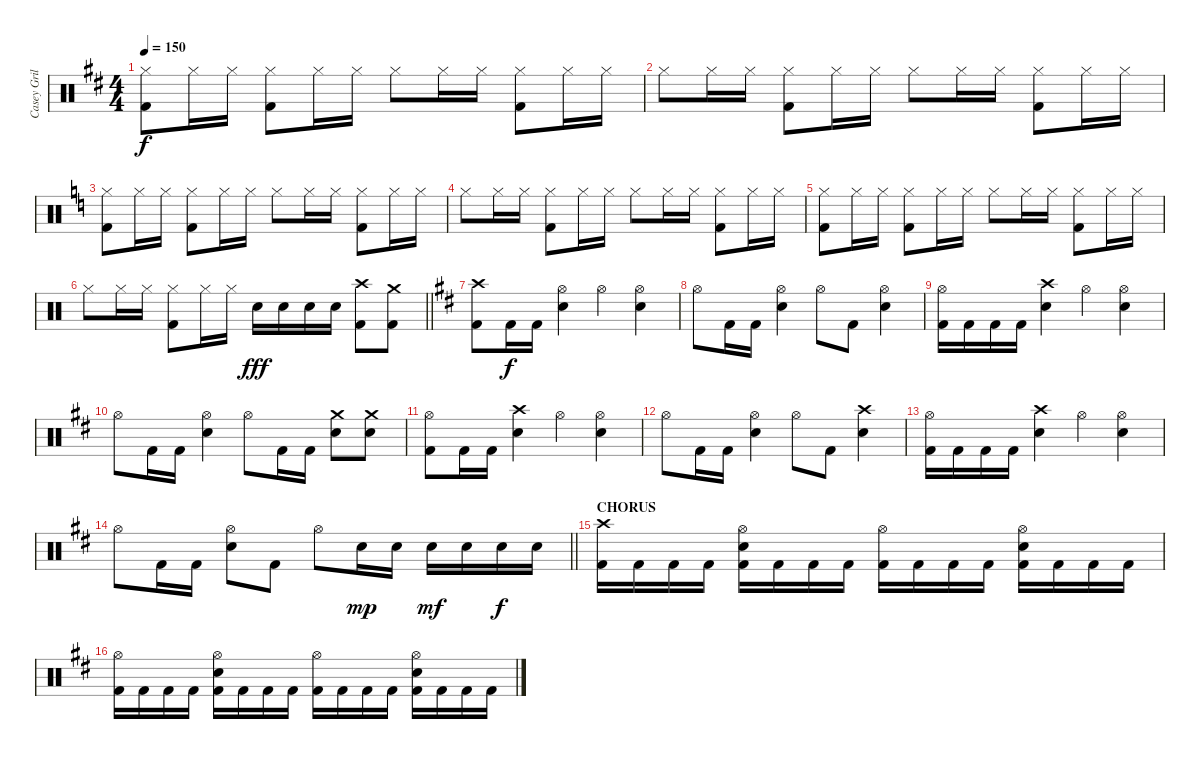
\track ("Casey Grillo" "Casey Gril") {instrument percussion}
\staff {score}
\articulation defaults
\ts (4 4)
\tempo 150
\clef neutral
\ks bminor
("Hi-Hat (closed)" "Kick (hit) 2").8{dy f} "Hi-Hat (closed)".16 "Hi-Hat (closed)".16 ("Hi-Hat (closed)" "Kick (hit) 2").8 "Hi-Hat (closed)".16 "Hi-Hat (closed)".16 "Hi-Hat (closed)".8 "Hi-Hat (closed)".16 "Hi-Hat (closed)".16 ("Hi-Hat (closed)" "Kick (hit) 2").8 "Hi-Hat (closed)".16 "Hi-Hat (closed)".16 |
"Hi-Hat (closed)".8 "Hi-Hat (closed)".16 "Hi-Hat (closed)".16 ("Hi-Hat (closed)" "Kick (hit) 2").8 "Hi-Hat (closed)".16 "Hi-Hat (closed)".16 "Hi-Hat (closed)".8 "Hi-Hat (closed)".16 "Hi-Hat (closed)".16 ("Hi-Hat (closed)" "Kick (hit) 2").8 "Hi-Hat (closed)".16 "Hi-Hat (closed)".16 |
\ks c
("Hi-Hat (closed)" "Kick (hit) 2").8 "Hi-Hat (closed)".16 "Hi-Hat (closed)".16 ("Hi-Hat (closed)" "Kick (hit) 2").8 "Hi-Hat (closed)".16 "Hi-Hat (closed)".16 "Hi-Hat (closed)".8 "Hi-Hat (closed)".16 "Hi-Hat (closed)".16 ("Hi-Hat (closed)" "Kick (hit) 2").8 "Hi-Hat (closed)".16 "Hi-Hat (closed)".16 |
"Hi-Hat (closed)".8 "Hi-Hat (closed)".16 "Hi-Hat (closed)".16 ("Hi-Hat (closed)" "Kick (hit) 2").8 "Hi-Hat (closed)".16 "Hi-Hat (closed)".16 "Hi-Hat (closed)".8 "Hi-Hat (closed)".16 "Hi-Hat (closed)".16 ("Hi-Hat (closed)" "Kick (hit) 2").8 "Hi-Hat (closed)".16 "Hi-Hat (closed)".16 |
("Hi-Hat (closed)" "Kick (hit) 2").8 "Hi-Hat (closed)".16 "Hi-Hat (closed)".16 ("Hi-Hat (closed)" "Kick (hit) 2").8 "Hi-Hat (closed)".16 "Hi-Hat (closed)".16 "Hi-Hat (closed)".8 "Hi-Hat (closed)".16 "Hi-Hat (closed)".16 ("Hi-Hat (closed)" "Kick (hit) 2").8 "Hi-Hat (closed)".16 "Hi-Hat (closed)".16 |
\barLineRight lightlight "Hi-Hat (closed)".8 "Hi-Hat (closed)".16 "Hi-Hat (closed)".16
("Hi-Hat (closed)" "Kick (hit) 2").8 "Hi-Hat (closed)".16 "Hi-Hat (closed)".16 "Electric Snare (hit)".16{dy fff} "Electric Snare (hit)".16 "Electric Snare (hit)".16 "Electric Snare (hit)".16 ("Crash high (hit)" "Kick (hit) 2").8 ("Crash medium (hit)" "Kick (hit) 2").8 |
\ks bminor
("Crash high (hit)" "Kick (hit) 2").8 "Kick (hit) 2".16{dy f} "Kick (hit) 2".16 ("Hi-Hat (open)" "Electric Snare (hit)").4 "Hi-Hat (open)".4 ("Hi-Hat (open)" "Electric Snare (hit)").4 |
"Hi-Hat (open)".8 "Kick (hit) 2".16 "Kick (hit) 2".16 ("Hi-Hat (open)" "Electric Snare (hit)").4 "Hi-Hat (open)".8 "Kick (hit) 2".8 ("Hi-Hat (open)" "Electric Snare (hit)").4 |
("Hi-Hat (open)" "Kick (hit) 2").16 "Kick (hit) 2".16 "Kick (hit) 2".16 "Kick (hit) 2".16 ("Crash high (hit)" "Electric Snare (hit)").4 "Hi-Hat (open)".4 ("Hi-Hat (open)" "Electric Snare (hit)").4 |
"Hi-Hat (open)".8 "Kick (hit) 2".16 "Kick (hit) 2".16 ("Hi-Hat (open)" "Electric Snare (hit)").4 "Hi-Hat (open)".8 "Kick (hit) 2".16 "Kick (hit) 2".16 ("Crash medium (hit)" "Electric Snare (hit)").8 ("Crash medium (hit)" "Electric Snare (hit)").8 |
("Hi-Hat (open)" "Kick (hit) 2").8 "Kick (hit) 2".16 "Kick (hit) 2".16 ("Crash high (hit)" "Electric Snare (hit)").4 "Hi-Hat (open)".4 ("Hi-Hat (open)" "Electric Snare (hit)").4 |
"Hi-Hat (open)".8 "Kick (hit) 2".16 "Kick (hit) 2".16 ("Hi-Hat (open)" "Electric Snare (hit)").4 "Hi-Hat (open)".8 "Kick (hit) 2".8 ("Crash high (hit)" "Electric Snare (hit)").4 |
("Hi-Hat (open)" "Kick (hit) 2").16 "Kick (hit) 2".16 "Kick (hit) 2".16 "Kick (hit) 2".16 ("Crash high (hit)" "Electric Snare (hit)").4 "Hi-Hat (open)".4 ("Hi-Hat (open)" "Electric Snare (hit)").4 |
\barLineRight lightlight "Hi-Hat (open)".8 "Kick (hit) 2".16 "Kick (hit) 2".16
("Hi-Hat (open)" "Electric Snare (hit)").8 "Kick (hit) 2".8 "Hi-Hat (open)".8 "Electric Snare (hit)".16{dy mp} "Electric Snare (hit)".16 "Electric Snare (hit)".16{dy mf} "Electric Snare (hit)".16 "Electric Snare (hit)".16{dy f} "Electric Snare (hit)".16 |
\section ("" "CHORUS")
("Crash high (hit)" "Kick (hit) 2").16 "Kick (hit) 2".16 "Kick (hit) 2".16 "Kick (hit) 2".16 ("Hi-Hat (open)" "Electric Snare (hit)" "Kick (hit) 2").16 "Kick (hit) 2".16 "Kick (hit) 2".16 "Kick (hit) 2".16 ("Hi-Hat (open)" "Kick (hit) 2").16 "Kick (hit) 2".16 "Kick (hit) 2".16 "Kick (hit) 2".16 ("Hi-Hat (open)" "Electric Snare (hit)" "Kick (hit) 2").16 "Kick (hit) 2".16 "Kick (hit) 2".16 "Kick (hit) 2".16 |
("Hi-Hat (open)" "Kick (hit) 2").16 "Kick (hit) 2".16 "Kick (hit) 2".16 "Kick (hit) 2".16 ("Hi-Hat (open)" "Electric Snare (hit)" "Kick (hit) 2").16 "Kick (hit) 2".16 "Kick (hit) 2".16 "Kick (hit) 2".16 ("Hi-Hat (open)" "Kick (hit) 2").16 "Kick (hit) 2".16 "Kick (hit) 2".16 "Kick (hit) 2".16 ("Hi-Hat (open)" "Electric Snare (hit)" "Kick (hit) 2").16 "Kick (hit) 2".16 "Kick (hit) 2".16 "Kick (hit) 2".16
